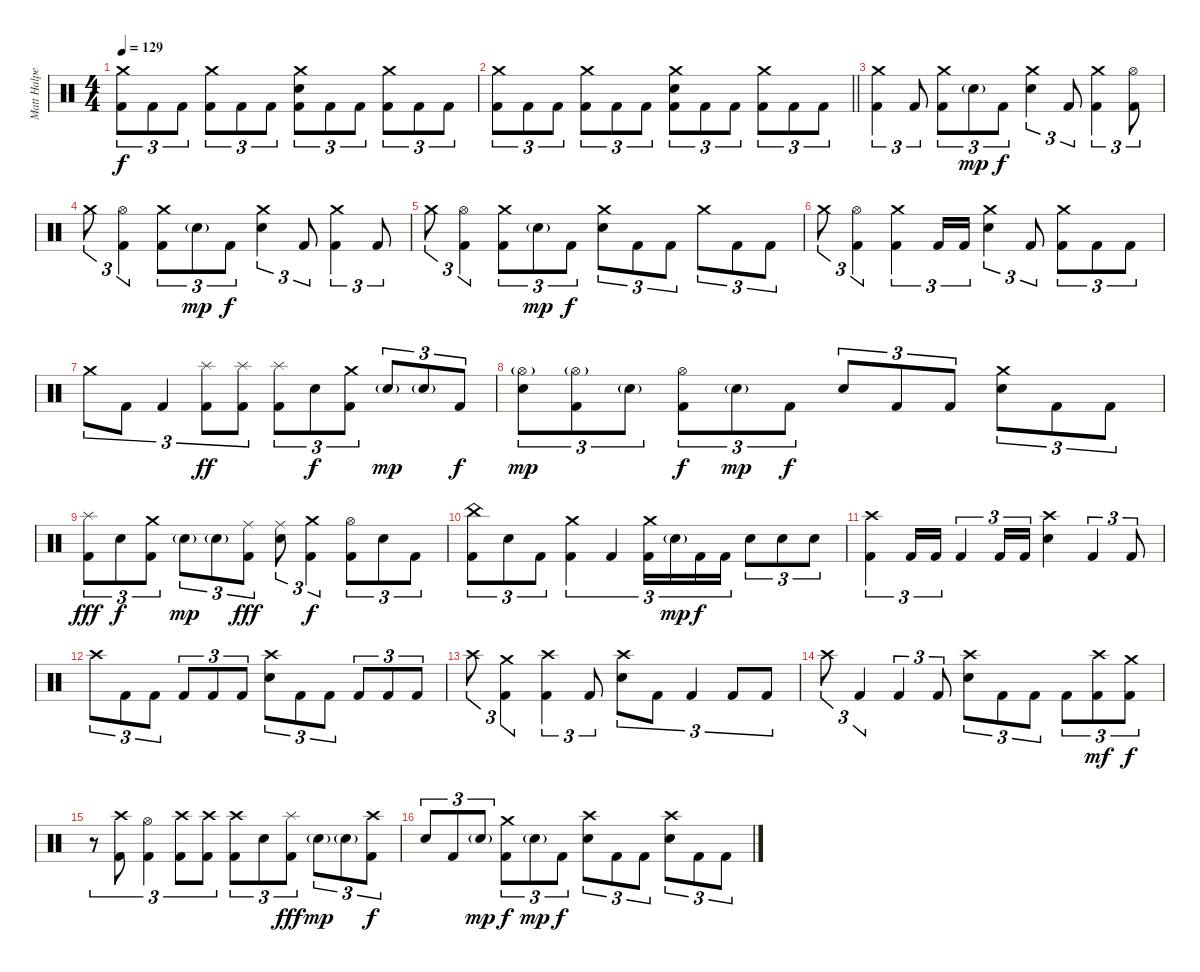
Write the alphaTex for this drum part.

\track ("Matt Halpern - Drums" "Matt Halpe") {instrument percussion}
\staff {score}
\articulation defaults
\ts (4 4)
\tempo 129
\clef neutral
\ks c
("Crash medium (hit)" "Kick (hit) 2").8{tu (3 2) dy f} "Kick (hit) 2".8{tu (3 2)} "Kick (hit) 2".8{tu (3 2)} ("Crash medium (hit)" "Kick (hit) 2").8{tu (3 2)} "Kick (hit) 2".8{tu (3 2)} "Kick (hit) 2".8{tu (3 2)} ("Crash medium (hit)" "Electric Snare (hit)" "Kick (hit) 2").8{tu (3 2)} "Kick (hit) 2".8{tu (3 2)} "Kick (hit) 2".8{tu (3 2)} ("Crash medium (hit)" "Kick (hit) 2").8{tu (3 2)} "Kick (hit) 2".8{tu (3 2)} "Kick (hit) 2".8{tu (3 2)} |
\barLineRight lightlight
("Crash medium (hit)" "Kick (hit) 2").8{tu (3 2)} "Kick (hit) 2".8{tu (3 2)} "Kick (hit) 2".8{tu (3 2)} ("Crash medium (hit)" "Kick (hit) 2").8{tu (3 2)} "Kick (hit) 2".8{tu (3 2)} "Kick (hit) 2".8{tu (3 2)} ("Crash medium (hit)" "Electric Snare (hit)" "Kick (hit) 2").8{tu (3 2)} "Kick (hit) 2".8{tu (3 2)} "Kick (hit) 2".8{tu (3 2)} ("Crash medium (hit)" "Kick (hit) 2").8{tu (3 2)} "Kick (hit) 2".8{tu (3 2)} "Kick (hit) 2".8{tu (3 2)} |
\section ("" "")
("Crash medium (hit)" "Kick (hit) 2").4{tu (3 2)} "Kick (hit) 2".8{tu (3 2)} ("Crash medium (hit)" "Kick (hit) 2").8{tu (3 2)} "Electric Snare (hit)"{g}.8{tu (3 2) dy mp} "Kick (hit) 2".8{tu (3 2) dy f} ("Crash medium (hit)" "Electric Snare (hit)").4{tu (3 2)} "Kick (hit) 2".8{tu (3 2)} ("Crash medium (hit)" "Kick (hit) 2").4{tu (3 2)} ("Hi-Hat (open)" "Kick (hit) 2").8{tu (3 2)} |
"Crash medium (hit)".8{tu (3 2)} ("Hi-Hat (open)" "Kick (hit) 2").4{tu (3 2)} ("Crash medium (hit)" "Kick (hit) 2").8{tu (3 2)} "Electric Snare (hit)"{g}.8{tu (3 2) dy mp} "Kick (hit) 2".8{tu (3 2) dy f} ("Crash medium (hit)" "Electric Snare (hit)").4{tu (3 2)} "Kick (hit) 2".8{tu (3 2)} ("Crash medium (hit)" "Kick (hit) 2").4{tu (3 2)} "Kick (hit) 2".8{tu (3 2)} |
"Crash medium (hit)".8{tu (3 2)} ("Hi-Hat (open)" "Kick (hit) 2").4{tu (3 2)} ("Crash medium (hit)" "Kick (hit) 2").8{tu (3 2)} "Electric Snare (hit)"{g}.8{tu (3 2) dy mp} "Kick (hit) 2".8{tu (3 2) dy f} ("Crash medium (hit)" "Electric Snare (hit)").8{tu (3 2)} "Kick (hit) 2".8{tu (3 2)} "Kick (hit) 2".8{tu (3 2)} "Crash medium (hit)".8{tu (3 2)} "Kick (hit) 2".8{tu (3 2)} "Kick (hit) 2".8{tu (3 2)} |
"Crash medium (hit)".8{tu (3 2)} ("Hi-Hat (open)" "Kick (hit) 2").4{tu (3 2)} ("Crash medium (hit)" "Kick (hit) 2").4{tu (3 2)} "Kick (hit) 2".16{tu (3 2)} "Kick (hit) 2".16{tu (3 2)} ("Crash medium (hit)" "Electric Snare (hit)").4{tu (3 2)} "Kick (hit) 2".8{tu (3 2)} ("Crash medium (hit)" "Kick (hit) 2").8{tu (3 2)} "Kick (hit) 2".8{tu (3 2)} "Kick (hit) 2".8{tu (3 2)} |
"Crash medium (hit)".8{tu (3 2)} "Kick (hit) 2".8{tu (3 2)} "Kick (hit) 2".4{tu (3 2)} ("Splash (hit)" "Kick (hit) 2").8{tu (3 2) dy ff} ("Splash (hit)" "Kick (hit) 2").8{tu (3 2)} ("Splash (hit)" "Kick (hit) 2").8{tu (3 2)} "Electric Snare (hit)".8{tu (3 2) dy f} ("Crash medium (hit)" "Kick (hit) 2").8{tu (3 2)} "Electric Snare (hit)"{g}.8{tu (3 2) dy mp} "Electric Snare (hit)"{g}.8{tu (3 2)} "Kick (hit) 2".8{tu (3 2) dy f} |
("Hi-Hat (open)"{g} "Electric Snare (hit)").8{tu (3 2) dy mp} ("Hi-Hat (open)"{g} "Kick (hit) 2").8{tu (3 2)} "Electric Snare (hit)"{g}.8{tu (3 2)} ("Hi-Hat (open)" "Kick (hit) 2").8{tu (3 2) dy f} "Electric Snare (hit)"{g}.8{tu (3 2) dy mp} "Kick (hit) 2".8{tu (3 2) dy f} "Electric Snare (hit)".8{tu (3 2)} "Kick (hit) 2".8{tu (3 2)} "Kick (hit) 2".8{tu (3 2)} ("Crash medium (hit)" "Electric Snare (hit)").8{tu (3 2)} "Kick (hit) 2".8{tu (3 2)} "Kick (hit) 2".8{tu (3 2)} |
("Splash (hit)" "Kick (hit) 2").8{tu (3 2) dy fff} "Electric Snare (hit)".8{tu (3 2) dy f} ("Crash medium (hit)" "Kick (hit) 2").8{tu (3 2)} "Electric Snare (hit)"{g}.8{tu (3 2) dy mp} "Electric Snare (hit)"{g}.8{tu (3 2)} ("Ride (middle)" "Kick (hit) 2").8{tu (3 2) dy fff} ("Ride (middle)" "Electric Snare (hit)").8{tu (3 2)} ("Crash medium (hit)" "Kick (hit) 2").4{tu (3 2) dy f} ("Hi-Hat (open)" "Kick (hit) 2").8{tu (3 2)} "Electric Snare (hit)".8{tu (3 2)} "Kick (hit) 2".8{tu (3 2)} |
("China (hit)" "Kick (hit) 2").8{tu (3 2)} "Electric Snare (hit)".8{tu (3 2)} "Kick (hit) 2".8{tu (3 2)} ("Crash medium (hit)" "Kick (hit) 2").4{tu (3 2)} "Kick (hit) 2".4{tu (3 2)} ("Crash medium (hit)" "Kick (hit) 2").16{tu (3 2)} "Electric Snare (hit)"{g}.16{tu (3 2) dy mp} "Kick (hit) 2".16{tu (3 2) dy f} "Kick (hit) 2".16{tu (3 2)} "Electric Snare (hit)".8{tu (3 2)} "Electric Snare (hit)".8{tu (3 2)} "Electric Snare (hit)".8{tu (3 2)} |
("Crash high (hit)" "Kick (hit) 2").4{tu (3 2)} "Kick (hit) 2".16{tu (3 2)} "Kick (hit) 2".16{tu (3 2)} "Kick (hit) 2".4{tu (3 2)} "Kick (hit) 2".16{tu (3 2)} "Kick (hit) 2".16{tu (3 2)} ("Crash high (hit)" "Electric Snare (hit)").4 "Kick (hit) 2".4{tu (3 2)} "Kick (hit) 2".8{tu (3 2)} |
"Crash high (hit)".8{tu (3 2)} "Kick (hit) 2".8{tu (3 2)} "Kick (hit) 2".8{tu (3 2)} "Kick (hit) 2".8{tu (3 2)} "Kick (hit) 2".8{tu (3 2)} "Kick (hit) 2".8{tu (3 2)} ("Crash high (hit)" "Electric Snare (hit)").8{tu (3 2)} "Kick (hit) 2".8{tu (3 2)} "Kick (hit) 2".8{tu (3 2)} "Kick (hit) 2".8{tu (3 2)} "Kick (hit) 2".8{tu (3 2)} "Kick (hit) 2".8{tu (3 2)} |
"Crash high (hit)".8{tu (3 2)} ("Crash medium (hit)" "Kick (hit) 2").4{tu (3 2)} ("Crash high (hit)" "Kick (hit) 2").4{tu (3 2)} "Kick (hit) 2".8{tu (3 2)} ("Crash high (hit)" "Electric Snare (hit)").8{tu (3 2)} "Kick (hit) 2".8{tu (3 2)} "Kick (hit) 2".4{tu (3 2)} "Kick (hit) 2".8{tu (3 2)} "Kick (hit) 2".8{tu (3 2)} |
"Crash high (hit)".8{tu (3 2)} "Kick (hit) 2".4{tu (3 2)} "Kick (hit) 2".4{tu (3 2)} "Kick (hit) 2".8{tu (3 2)} ("Crash high (hit)" "Electric Snare (hit)").8{tu (3 2)} "Kick (hit) 2".8{tu (3 2)} "Kick (hit) 2".8{tu (3 2)} "Kick (hit) 2".8{tu (3 2)} ("Crash high (hit)" "Kick (hit) 2").8{tu (3 2) dy mf} ("Crash medium (hit)" "Kick (hit) 2").8{tu (3 2) dy f} |
r.8{tu (3 2)} ("Crash high (hit)" "Kick (hit) 2").8{tu (3 2)} ("Hi-Hat (open)" "Kick (hit) 2").4{tu (3 2)} ("Crash high (hit)" "Kick (hit) 2").8{tu (3 2)} ("Crash high (hit)" "Kick (hit) 2").8{tu (3 2)} ("Crash high (hit)" "Kick (hit) 2").8{tu (3 2)} "Electric Snare (hit)".8{tu (3 2)} ("Splash (hit)" "Kick (hit) 2").8{tu (3 2) dy fff} "Electric Snare (hit)"{g}.8{tu (3 2) dy mp} "Electric Snare (hit)"{g}.8{tu (3 2)} ("Crash high (hit)" "Kick (hit) 2").8{tu (3 2) dy f} |
"Electric Snare (hit)".8{tu (3 2)} "Kick (hit) 2".8{tu (3 2)} "Electric Snare (hit)"{g}.8{tu (3 2) dy mp} ("Crash medium (hit)" "Kick (hit) 2").8{tu (3 2) dy f} "Electric Snare (hit)"{g}.8{tu (3 2) dy mp} "Kick (hit) 2".8{tu (3 2) dy f} ("Crash high (hit)" "Electric Snare (hit)").8{tu (3 2)} "Kick (hit) 2".8{tu (3 2)} "Kick (hit) 2".8{tu (3 2)} ("Crash high (hit)" "Electric Snare (hit)").8{tu (3 2)} "Kick (hit) 2".8{tu (3 2)} "Kick (hit) 2".8{tu (3 2)}
